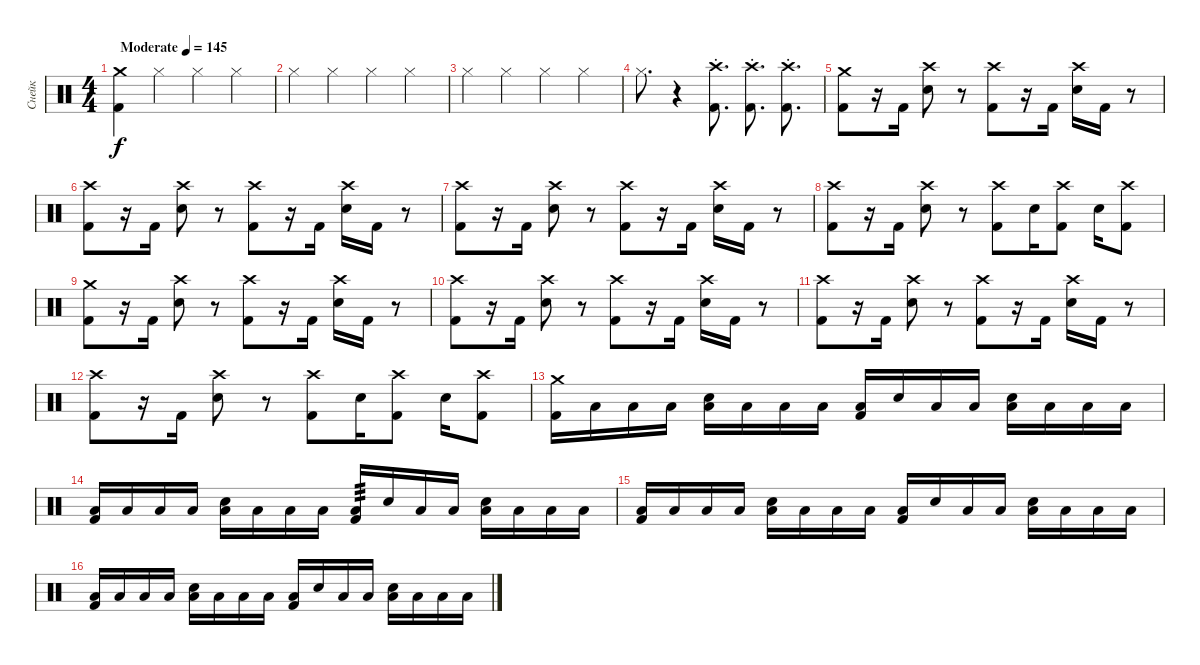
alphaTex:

\track ("Снейк" "Снейк") {instrument percussion}
\staff {score}
\articulation defaults
\ts (4 4)
\tempo (145 "Moderate")
\clef neutral
\ks c
("Crash medium (hit)" "Kick (hit) 2").4{dy f} "Hi-Hat (closed)".4 "Hi-Hat (closed)".4 "Hi-Hat (closed)".4 |
"Hi-Hat (closed)".4 "Hi-Hat (closed)".4 "Hi-Hat (closed)".4 "Hi-Hat (closed)".4 |
"Hi-Hat (closed)".4 "Hi-Hat (closed)".4 "Hi-Hat (closed)".4 "Hi-Hat (closed)".4 |
"Hi-Hat (closed)".8{d} r.4 ("Crash high (hit)"{st} "Kick (hit) 2").8{d} ("Crash high (hit)"{st} "Kick (hit) 2").8{d} ("Crash high (hit)"{st} "Kick (hit) 2").8{d} |
("Kick (hit) 2" "Crash medium (hit)").8 r.16 "Kick (hit) 2".16 ("Electric Snare (hit)" "Crash high (hit)").8 r.8 ("Kick (hit) 2" "Crash high (hit)").8 r.16 "Kick (hit) 2".16 ("Electric Snare (hit)" "Crash high (hit)").16 "Kick (hit) 2".16 r.8 |
("Kick (hit) 2" "Crash high (hit)").8 r.16 "Kick (hit) 2".16 ("Electric Snare (hit)" "Crash high (hit)").8 r.8 ("Kick (hit) 2" "Crash high (hit)").8 r.16 "Kick (hit) 2".16 ("Electric Snare (hit)" "Crash high (hit)").16 "Kick (hit) 2".16 r.8 |
("Kick (hit) 2" "Crash high (hit)").8 r.16 "Kick (hit) 2".16 ("Electric Snare (hit)" "Crash high (hit)").8 r.8 ("Kick (hit) 2" "Crash high (hit)").8 r.16 "Kick (hit) 2".16 ("Electric Snare (hit)" "Crash high (hit)").16 "Kick (hit) 2".16 r.8 |
("Kick (hit) 2" "Crash high (hit)").8 r.16 "Kick (hit) 2".16 ("Electric Snare (hit)" "Crash high (hit)").8 r.8 ("Kick (hit) 2" "Crash high (hit)").8 "Electric Snare (hit)".16 ("Kick (hit) 2" "Crash high (hit)").8 "Electric Snare (hit)".16 ("Kick (hit) 2" "Crash high (hit)").8 |
("Kick (hit) 2" "Crash medium (hit)").8 r.16 "Kick (hit) 2".16 ("Electric Snare (hit)" "Crash high (hit)").8 r.8 ("Kick (hit) 2" "Crash high (hit)").8 r.16 "Kick (hit) 2".16 ("Electric Snare (hit)" "Crash high (hit)").16 "Kick (hit) 2".16 r.8 |
("Kick (hit) 2" "Crash high (hit)").8 r.16 "Kick (hit) 2".16 ("Electric Snare (hit)" "Crash high (hit)").8 r.8 ("Kick (hit) 2" "Crash high (hit)").8 r.16 "Kick (hit) 2".16 ("Electric Snare (hit)" "Crash high (hit)").16 "Kick (hit) 2".16 r.8 |
("Kick (hit) 2" "Crash high (hit)").8 r.16 "Kick (hit) 2".16 ("Electric Snare (hit)" "Crash high (hit)").8 r.8 ("Kick (hit) 2" "Crash high (hit)").8 r.16 "Kick (hit) 2".16 ("Electric Snare (hit)" "Crash high (hit)").16 "Kick (hit) 2".16 r.8 |
("Kick (hit) 2" "Crash high (hit)").8 r.16 "Kick (hit) 2".16 ("Electric Snare (hit)" "Crash high (hit)").8 r.8 ("Kick (hit) 2" "Crash high (hit)").8 "Electric Snare (hit)".16 ("Kick (hit) 2" "Crash high (hit)").8 "Electric Snare (hit)".16 ("Kick (hit) 2" "Crash high (hit)").8 |
("Crash medium (hit)" "Kick (hit) 2").16 "Low Tom (hit)".16 "Low Floor Tom (hit)".16 "Low Tom (hit)".16 ("Low Floor Tom (hit)" "Electric Snare (hit)").16 "Low Tom (hit)".16 "Low Floor Tom (hit)".16 "Low Tom (hit)".16 ("Low Floor Tom (hit)" "Kick (hit) 2").16 "Electric Snare (hit)".16 "Low Floor Tom (hit)".16 "Low Tom (hit)".16 ("Low Floor Tom (hit)" "Electric Snare (hit)").16 "Low Tom (hit)".16 "Low Floor Tom (hit)".16 "Low Tom (hit)".16 |
("Low Floor Tom (hit)" "Kick (hit) 2").16 "Low Tom (hit)".16 "Low Floor Tom (hit)".16 "Low Tom (hit)".16 ("Low Floor Tom (hit)" "Electric Snare (hit)").16 "Low Tom (hit)".16 "Low Floor Tom (hit)".16 "Low Tom (hit)".16 ("Low Floor Tom (hit)" "Kick (hit) 2").16{tp 3} "Electric Snare (hit)".16 "Low Floor Tom (hit)".16 "Low Tom (hit)".16 ("Low Floor Tom (hit)" "Electric Snare (hit)").16 "Low Tom (hit)".16 "Low Floor Tom (hit)".16 "Low Tom (hit)".16 |
("Low Floor Tom (hit)" "Kick (hit) 2").16 "Low Tom (hit)".16 "Low Floor Tom (hit)".16 "Low Tom (hit)".16 ("Low Floor Tom (hit)" "Electric Snare (hit)").16 "Low Tom (hit)".16 "Low Floor Tom (hit)".16 "Low Tom (hit)".16 ("Low Floor Tom (hit)" "Kick (hit) 2").16 "Electric Snare (hit)".16 "Low Floor Tom (hit)".16 "Low Tom (hit)".16 ("Low Floor Tom (hit)" "Electric Snare (hit)").16 "Low Tom (hit)".16 "Low Floor Tom (hit)".16 "Low Tom (hit)".16 |
("Low Floor Tom (hit)" "Kick (hit) 2").16 "Low Tom (hit)".16 "Low Floor Tom (hit)".16 "Low Tom (hit)".16 ("Low Floor Tom (hit)" "Electric Snare (hit)").16 "Low Tom (hit)".16 "Low Floor Tom (hit)".16 "Low Tom (hit)".16 ("Low Floor Tom (hit)" "Kick (hit) 2").16 "Electric Snare (hit)".16 "Low Floor Tom (hit)".16 "Low Tom (hit)".16 ("Low Floor Tom (hit)" "Electric Snare (hit)").16 "Low Tom (hit)".16 "Low Floor Tom (hit)".16 "Low Tom (hit)".16
